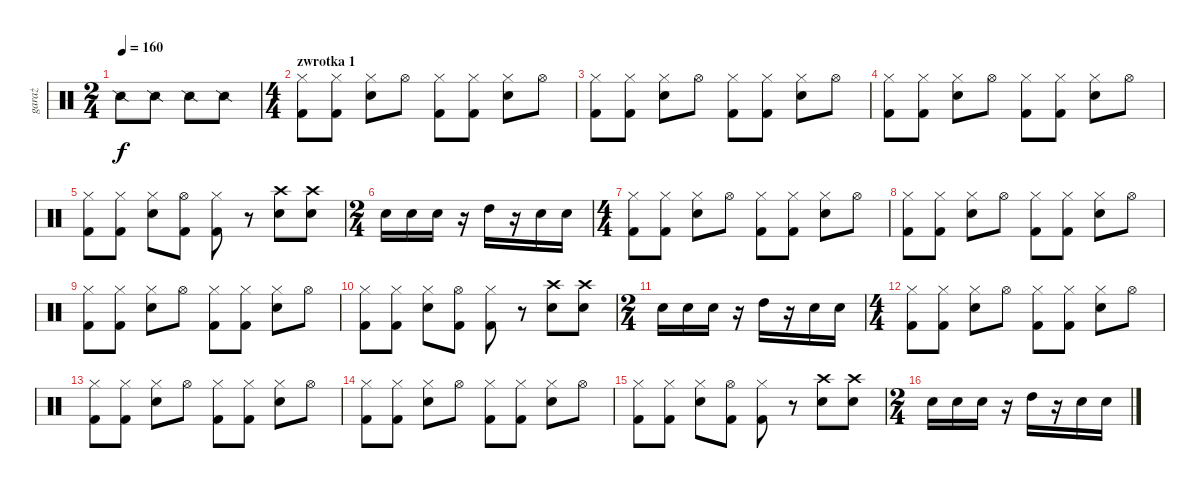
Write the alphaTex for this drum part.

\track ("garaż" "garaż") {instrument percussion}
\staff {score}
\articulation defaults
\ts (2 4)
\tempo 160
\clef neutral
\ks c "Snare (side stick) 2".8{dy f} "Snare (side stick) 2".8 "Snare (side stick) 2".8 "Snare (side stick) 2".8
|
\ts (4 4)
\section ("" "zwrotka 1")
("Hi-Hat (closed)" "Kick (hit) 2").8 ("Hi-Hat (closed)" "Kick (hit) 2").8 ("Hi-Hat (closed)" "Snare (hit) 2").8 "Hi-Hat (open)".8 ("Hi-Hat (closed)" "Kick (hit) 2").8 ("Hi-Hat (closed)" "Kick (hit) 2").8 ("Hi-Hat (closed)" "Snare (hit) 2").8 "Hi-Hat (open)".8 |
("Hi-Hat (closed)" "Kick (hit) 2").8 ("Hi-Hat (closed)" "Kick (hit) 2").8 ("Hi-Hat (closed)" "Snare (hit) 2").8 "Hi-Hat (open)".8 ("Hi-Hat (closed)" "Kick (hit) 2").8 ("Hi-Hat (closed)" "Kick (hit) 2").8 ("Hi-Hat (closed)" "Snare (hit) 2").8 "Hi-Hat (open)".8 |
("Hi-Hat (closed)" "Kick (hit) 2").8 ("Hi-Hat (closed)" "Kick (hit) 2").8 ("Hi-Hat (closed)" "Snare (hit) 2").8 "Hi-Hat (open)".8 ("Hi-Hat (closed)" "Kick (hit) 2").8 ("Hi-Hat (closed)" "Kick (hit) 2").8 ("Hi-Hat (closed)" "Snare (hit) 2").8 "Hi-Hat (open)".8 |
("Hi-Hat (closed)" "Kick (hit) 2").8 ("Hi-Hat (closed)" "Kick (hit) 2").8 ("Hi-Hat (closed)" "Snare (hit) 2").8 ("Hi-Hat (open)" "Kick (hit) 2").8 ("Hi-Hat (closed)" "Kick (hit) 2").8 r.8 ("Crash high (hit)" "Snare (hit) 2").8 ("Crash high (hit)" "Snare (hit) 2").8 |
\ts (2 4)
"Snare (hit) 2".16 "Snare (hit) 2".16 "Snare (hit) 2".16 r.16 "High Tom (hit)".16 r.16 "Snare (hit) 2".16 "Snare (hit) 2".16 |
\ts (4 4)
("Hi-Hat (closed)" "Kick (hit) 2").8 ("Hi-Hat (closed)" "Kick (hit) 2").8 ("Hi-Hat (closed)" "Snare (hit) 2").8 "Hi-Hat (open)".8 ("Hi-Hat (closed)" "Kick (hit) 2").8 ("Hi-Hat (closed)" "Kick (hit) 2").8 ("Hi-Hat (closed)" "Snare (hit) 2").8 "Hi-Hat (open)".8 |
("Hi-Hat (closed)" "Kick (hit) 2").8 ("Hi-Hat (closed)" "Kick (hit) 2").8 ("Hi-Hat (closed)" "Snare (hit) 2").8 "Hi-Hat (open)".8 ("Hi-Hat (closed)" "Kick (hit) 2").8 ("Hi-Hat (closed)" "Kick (hit) 2").8 ("Hi-Hat (closed)" "Snare (hit) 2").8 "Hi-Hat (open)".8 |
("Hi-Hat (closed)" "Kick (hit) 2").8 ("Hi-Hat (closed)" "Kick (hit) 2").8 ("Hi-Hat (closed)" "Snare (hit) 2").8 "Hi-Hat (open)".8 ("Hi-Hat (closed)" "Kick (hit) 2").8 ("Hi-Hat (closed)" "Kick (hit) 2").8 ("Hi-Hat (closed)" "Snare (hit) 2").8 "Hi-Hat (open)".8 |
("Hi-Hat (closed)" "Kick (hit) 2").8 ("Hi-Hat (closed)" "Kick (hit) 2").8 ("Hi-Hat (closed)" "Snare (hit) 2").8 ("Hi-Hat (open)" "Kick (hit) 2").8 ("Hi-Hat (closed)" "Kick (hit) 2").8 r.8 ("Crash high (hit)" "Snare (hit) 2").8 ("Crash high (hit)" "Snare (hit) 2").8 |
\ts (2 4)
"Snare (hit) 2".16 "Snare (hit) 2".16 "Snare (hit) 2".16 r.16 "High Tom (hit)".16 r.16 "Snare (hit) 2".16 "Snare (hit) 2".16 |
\ts (4 4)
("Hi-Hat (closed)" "Kick (hit) 2").8 ("Hi-Hat (closed)" "Kick (hit) 2").8 ("Hi-Hat (closed)" "Snare (hit) 2").8 "Hi-Hat (open)".8 ("Hi-Hat (closed)" "Kick (hit) 2").8 ("Hi-Hat (closed)" "Kick (hit) 2").8 ("Hi-Hat (closed)" "Snare (hit) 2").8 "Hi-Hat (open)".8 |
("Hi-Hat (closed)" "Kick (hit) 2").8 ("Hi-Hat (closed)" "Kick (hit) 2").8 ("Hi-Hat (closed)" "Snare (hit) 2").8 "Hi-Hat (open)".8 ("Hi-Hat (closed)" "Kick (hit) 2").8 ("Hi-Hat (closed)" "Kick (hit) 2").8 ("Hi-Hat (closed)" "Snare (hit) 2").8 "Hi-Hat (open)".8 |
("Hi-Hat (closed)" "Kick (hit) 2").8 ("Hi-Hat (closed)" "Kick (hit) 2").8 ("Hi-Hat (closed)" "Snare (hit) 2").8 "Hi-Hat (open)".8 ("Hi-Hat (closed)" "Kick (hit) 2").8 ("Hi-Hat (closed)" "Kick (hit) 2").8 ("Hi-Hat (closed)" "Snare (hit) 2").8 "Hi-Hat (open)".8 |
("Hi-Hat (closed)" "Kick (hit) 2").8 ("Hi-Hat (closed)" "Kick (hit) 2").8 ("Hi-Hat (closed)" "Snare (hit) 2").8 ("Hi-Hat (open)" "Kick (hit) 2").8 ("Hi-Hat (closed)" "Kick (hit) 2").8 r.8 ("Crash high (hit)" "Snare (hit) 2").8 ("Crash high (hit)" "Snare (hit) 2").8 |
\ts (2 4)
"Snare (hit) 2".16 "Snare (hit) 2".16 "Snare (hit) 2".16 r.16 "High Tom (hit)".16 r.16 "Snare (hit) 2".16 "Snare (hit) 2".16
